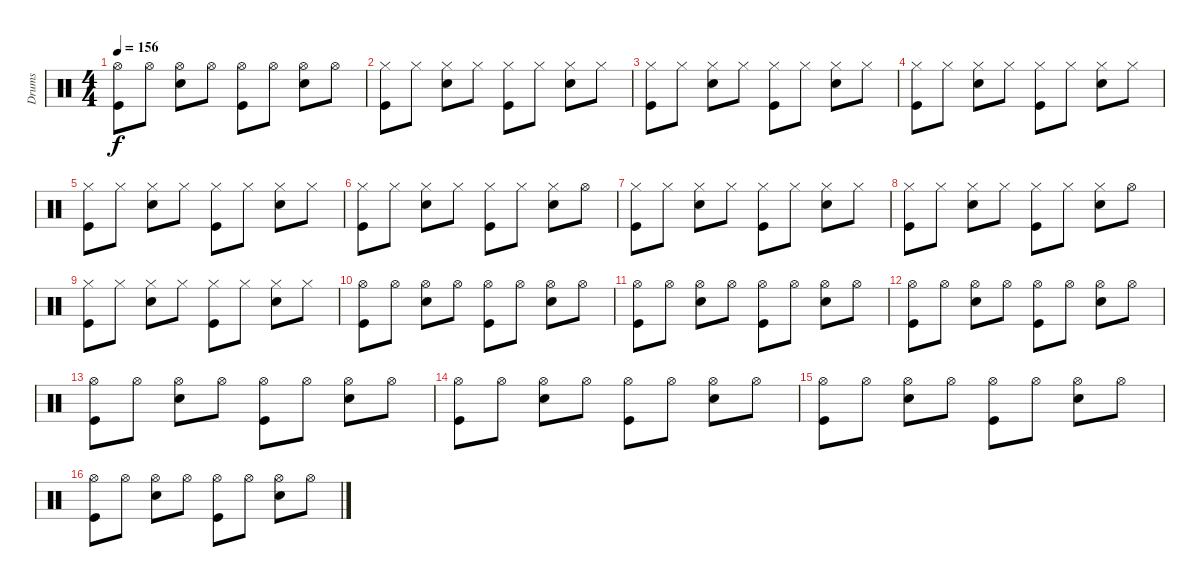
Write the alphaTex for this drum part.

\track ("Drums" "Drums") {instrument percussion}
\staff {score}
\articulation defaults
\ts (4 4)
\tempo 156
\clef neutral
\ks c
("Hi-Hat (open)" "Kick (hit)").8{dy f} "Hi-Hat (open)".8 ("Hi-Hat (open)" "Electric Snare (hit)").8 "Hi-Hat (open)".8 ("Hi-Hat (open)" "Kick (hit)").8 "Hi-Hat (open)".8 ("Hi-Hat (open)" "Electric Snare (hit)").8 "Hi-Hat (open)".8 |
("Hi-Hat (closed)" "Kick (hit)").8 "Hi-Hat (closed)".8 ("Hi-Hat (closed)" "Electric Snare (hit)").8 "Hi-Hat (closed)".8 ("Hi-Hat (closed)" "Kick (hit)").8 "Hi-Hat (closed)".8 ("Hi-Hat (closed)" "Electric Snare (hit)").8 "Hi-Hat (closed)".8 |
("Hi-Hat (closed)" "Kick (hit)").8 "Hi-Hat (closed)".8 ("Hi-Hat (closed)" "Electric Snare (hit)").8 "Hi-Hat (closed)".8 ("Hi-Hat (closed)" "Kick (hit)").8 "Hi-Hat (closed)".8 ("Hi-Hat (closed)" "Electric Snare (hit)").8 "Hi-Hat (closed)".8 |
("Hi-Hat (closed)" "Kick (hit)").8 "Hi-Hat (closed)".8 ("Hi-Hat (closed)" "Electric Snare (hit)").8 "Hi-Hat (closed)".8 ("Hi-Hat (closed)" "Kick (hit)").8 "Hi-Hat (closed)".8 ("Hi-Hat (closed)" "Electric Snare (hit)").8 "Hi-Hat (closed)".8 |
("Hi-Hat (closed)" "Kick (hit)").8 "Hi-Hat (closed)".8 ("Hi-Hat (closed)" "Electric Snare (hit)").8 "Hi-Hat (closed)".8 ("Hi-Hat (closed)" "Kick (hit)").8 "Hi-Hat (closed)".8 ("Hi-Hat (closed)" "Electric Snare (hit)").8 "Hi-Hat (closed)".8 |
("Hi-Hat (closed)" "Kick (hit)").8 "Hi-Hat (closed)".8 ("Hi-Hat (closed)" "Electric Snare (hit)").8 "Hi-Hat (closed)".8 ("Hi-Hat (closed)" "Kick (hit)").8 "Hi-Hat (closed)".8 ("Hi-Hat (closed)" "Electric Snare (hit)").8 "Hi-Hat (open)".8 |
("Hi-Hat (closed)" "Kick (hit)").8 "Hi-Hat (closed)".8 ("Hi-Hat (closed)" "Electric Snare (hit)").8 "Hi-Hat (closed)".8 ("Hi-Hat (closed)" "Kick (hit)").8 "Hi-Hat (closed)".8 ("Hi-Hat (closed)" "Electric Snare (hit)").8 "Hi-Hat (closed)".8 |
("Hi-Hat (closed)" "Kick (hit)").8 "Hi-Hat (closed)".8 ("Hi-Hat (closed)" "Electric Snare (hit)").8 "Hi-Hat (closed)".8 ("Hi-Hat (closed)" "Kick (hit)").8 "Hi-Hat (closed)".8 ("Hi-Hat (closed)" "Electric Snare (hit)").8 "Hi-Hat (open)".8 |
("Hi-Hat (closed)" "Kick (hit)").8 "Hi-Hat (closed)".8 ("Hi-Hat (closed)" "Electric Snare (hit)").8 "Hi-Hat (closed)".8 ("Hi-Hat (closed)" "Kick (hit)").8 "Hi-Hat (closed)".8 ("Hi-Hat (closed)" "Electric Snare (hit)").8 "Hi-Hat (closed)".8 |
("Hi-Hat (open)" "Kick (hit)").8 "Hi-Hat (open)".8 ("Hi-Hat (open)" "Electric Snare (hit)").8 "Hi-Hat (open)".8 ("Hi-Hat (open)" "Kick (hit)").8 "Hi-Hat (open)".8 ("Hi-Hat (open)" "Electric Snare (hit)").8 "Hi-Hat (open)".8 |
("Hi-Hat (open)" "Kick (hit)").8 "Hi-Hat (open)".8 ("Hi-Hat (open)" "Electric Snare (hit)").8 "Hi-Hat (open)".8 ("Hi-Hat (open)" "Kick (hit)").8 "Hi-Hat (open)".8 ("Hi-Hat (open)" "Electric Snare (hit)").8 "Hi-Hat (open)".8 |
("Hi-Hat (open)" "Kick (hit)").8 "Hi-Hat (open)".8 ("Hi-Hat (open)" "Electric Snare (hit)").8 "Hi-Hat (open)".8 ("Hi-Hat (open)" "Kick (hit)").8 "Hi-Hat (open)".8 ("Hi-Hat (open)" "Electric Snare (hit)").8 "Hi-Hat (open)".8 |
("Hi-Hat (open)" "Kick (hit)").8 "Hi-Hat (open)".8 ("Hi-Hat (open)" "Electric Snare (hit)").8 "Hi-Hat (open)".8 ("Hi-Hat (open)" "Kick (hit)").8 "Hi-Hat (open)".8 ("Hi-Hat (open)" "Electric Snare (hit)").8 "Hi-Hat (open)".8 |
("Hi-Hat (open)" "Kick (hit)").8 "Hi-Hat (open)".8 ("Hi-Hat (open)" "Electric Snare (hit)").8 "Hi-Hat (open)".8 ("Hi-Hat (open)" "Kick (hit)").8 "Hi-Hat (open)".8 ("Hi-Hat (open)" "Electric Snare (hit)").8 "Hi-Hat (open)".8 |
("Hi-Hat (open)" "Kick (hit)").8 "Hi-Hat (open)".8 ("Hi-Hat (open)" "Electric Snare (hit)").8 "Hi-Hat (open)".8 ("Hi-Hat (open)" "Kick (hit)").8 "Hi-Hat (open)".8 ("Hi-Hat (open)" "Electric Snare (hit)").8 "Hi-Hat (open)".8 |
("Hi-Hat (open)" "Kick (hit)").8 "Hi-Hat (open)".8 ("Hi-Hat (open)" "Electric Snare (hit)").8 "Hi-Hat (open)".8 ("Hi-Hat (open)" "Kick (hit)").8 "Hi-Hat (open)".8 ("Hi-Hat (open)" "Electric Snare (hit)").8 "Hi-Hat (open)".8
